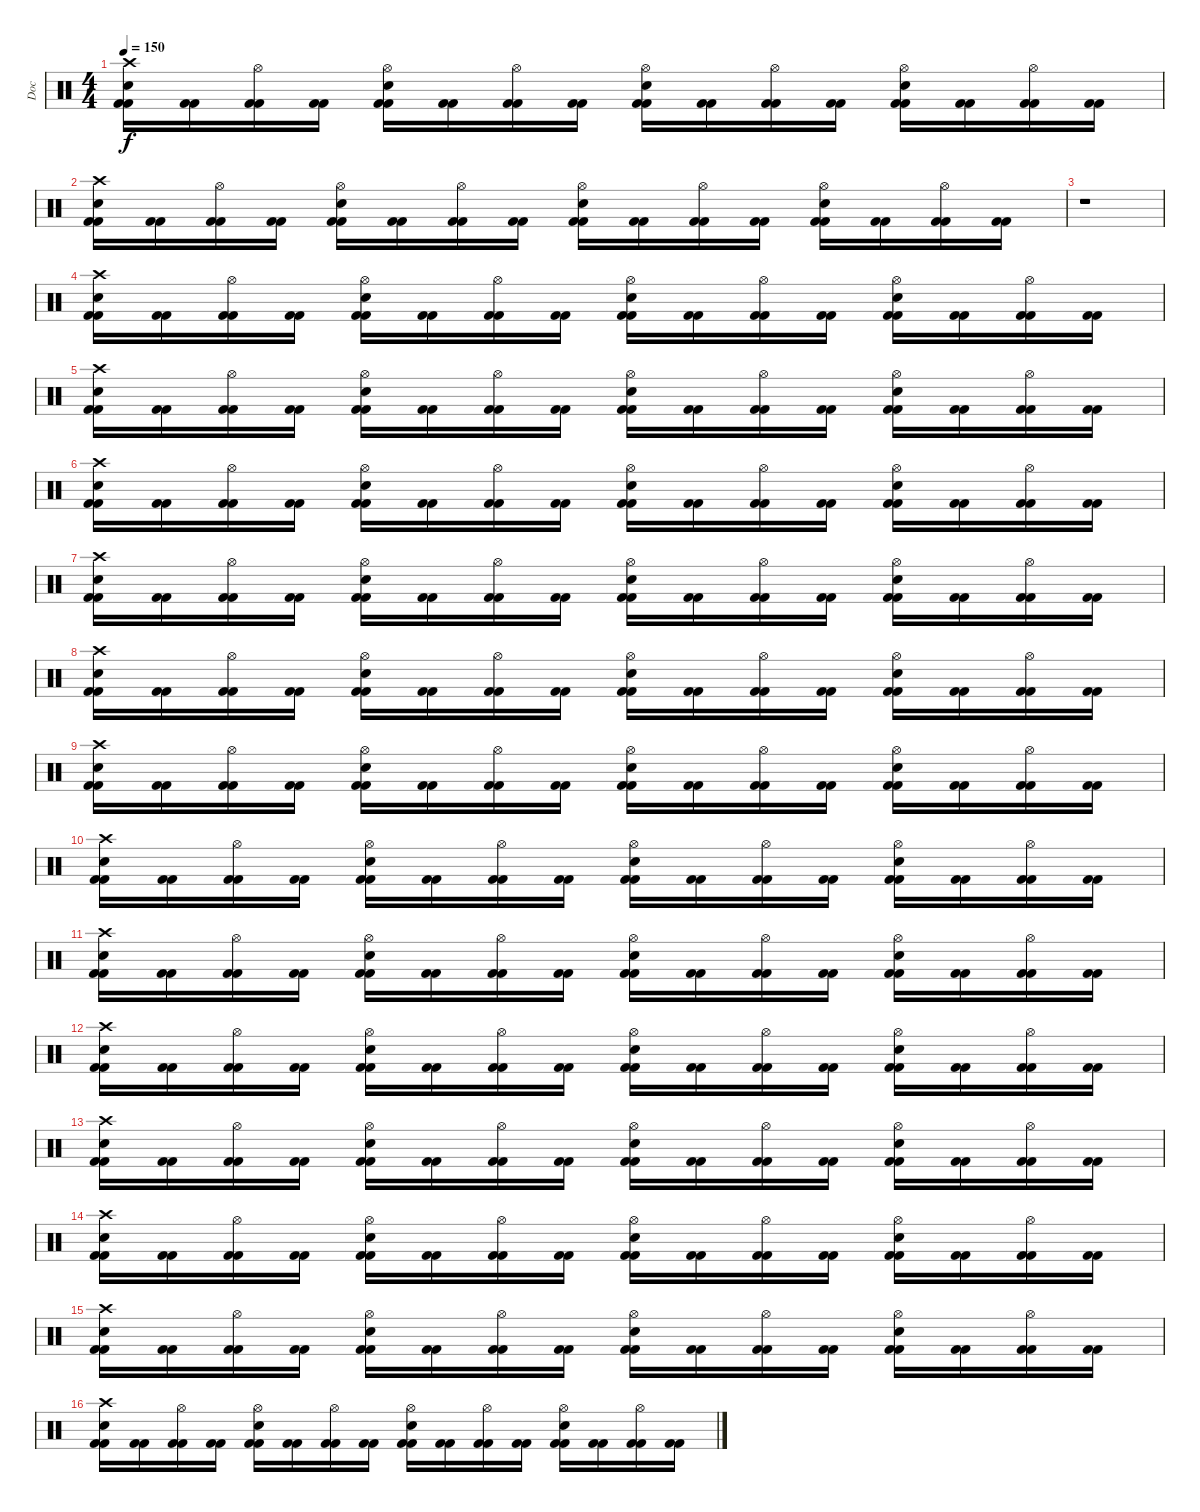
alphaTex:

\track ("Doc" "Doc") {instrument percussion}
\staff {score}
\articulation defaults
\ts (4 4)
\tempo 150
\clef neutral
\ks c
("Kick (hit) 2" "Crash high (hit)" "Electric Snare (hit)" "Kick (hit) 2").16{dy f} ("Kick (hit) 2" "Kick (hit) 2").16 ("Kick (hit) 2" "Hi-Hat (open)" "Kick (hit) 2").16 ("Kick (hit) 2" "Kick (hit) 2").16 ("Kick (hit) 2" "Hi-Hat (open)" "Electric Snare (hit)" "Kick (hit) 2").16 ("Kick (hit) 2" "Kick (hit) 2").16 ("Kick (hit) 2" "Hi-Hat (open)" "Kick (hit) 2").16 ("Kick (hit) 2" "Kick (hit) 2").16 ("Kick (hit) 2" "Hi-Hat (open)" "Electric Snare (hit)" "Kick (hit) 2").16 ("Kick (hit) 2" "Kick (hit) 2").16 ("Kick (hit) 2" "Hi-Hat (open)" "Kick (hit) 2").16 ("Kick (hit) 2" "Kick (hit) 2").16 ("Kick (hit) 2" "Hi-Hat (open)" "Electric Snare (hit)" "Kick (hit) 2").16 ("Kick (hit) 2" "Kick (hit) 2").16 ("Kick (hit) 2" "Hi-Hat (open)" "Kick (hit) 2").16 ("Kick (hit) 2" "Kick (hit) 2").16 |
("Kick (hit) 2" "Crash high (hit)" "Electric Snare (hit)" "Kick (hit) 2").16 ("Kick (hit) 2" "Kick (hit) 2").16 ("Kick (hit) 2" "Hi-Hat (open)" "Kick (hit) 2").16 ("Kick (hit) 2" "Kick (hit) 2").16 ("Kick (hit) 2" "Hi-Hat (open)" "Electric Snare (hit)" "Kick (hit) 2").16 ("Kick (hit) 2" "Kick (hit) 2").16 ("Kick (hit) 2" "Hi-Hat (open)" "Kick (hit) 2").16 ("Kick (hit) 2" "Kick (hit) 2").16 ("Kick (hit) 2" "Hi-Hat (open)" "Electric Snare (hit)" "Kick (hit) 2").16 ("Kick (hit) 2" "Kick (hit) 2").16 ("Kick (hit) 2" "Hi-Hat (open)" "Kick (hit) 2").16 ("Kick (hit) 2" "Kick (hit) 2").16 ("Kick (hit) 2" "Hi-Hat (open)" "Electric Snare (hit)" "Kick (hit) 2").16 ("Kick (hit) 2" "Kick (hit) 2").16 ("Kick (hit) 2" "Hi-Hat (open)" "Kick (hit) 2").16 ("Kick (hit) 2" "Kick (hit) 2").16 |
r.1 |
("Kick (hit) 2" "Crash high (hit)" "Electric Snare (hit)" "Kick (hit) 2").16 ("Kick (hit) 2" "Kick (hit) 2").16 ("Kick (hit) 2" "Hi-Hat (open)" "Kick (hit) 2").16 ("Kick (hit) 2" "Kick (hit) 2").16 ("Kick (hit) 2" "Hi-Hat (open)" "Electric Snare (hit)" "Kick (hit) 2").16 ("Kick (hit) 2" "Kick (hit) 2").16 ("Kick (hit) 2" "Hi-Hat (open)" "Kick (hit) 2").16 ("Kick (hit) 2" "Kick (hit) 2").16 ("Kick (hit) 2" "Hi-Hat (open)" "Electric Snare (hit)" "Kick (hit) 2").16 ("Kick (hit) 2" "Kick (hit) 2").16 ("Kick (hit) 2" "Hi-Hat (open)" "Kick (hit) 2").16 ("Kick (hit) 2" "Kick (hit) 2").16 ("Kick (hit) 2" "Hi-Hat (open)" "Electric Snare (hit)" "Kick (hit) 2").16 ("Kick (hit) 2" "Kick (hit) 2").16 ("Kick (hit) 2" "Hi-Hat (open)" "Kick (hit) 2").16 ("Kick (hit) 2" "Kick (hit) 2").16 |
("Kick (hit) 2" "Crash high (hit)" "Electric Snare (hit)" "Kick (hit) 2").16 ("Kick (hit) 2" "Kick (hit) 2").16 ("Kick (hit) 2" "Hi-Hat (open)" "Kick (hit) 2").16 ("Kick (hit) 2" "Kick (hit) 2").16 ("Kick (hit) 2" "Hi-Hat (open)" "Electric Snare (hit)" "Kick (hit) 2").16 ("Kick (hit) 2" "Kick (hit) 2").16 ("Kick (hit) 2" "Hi-Hat (open)" "Kick (hit) 2").16 ("Kick (hit) 2" "Kick (hit) 2").16 ("Kick (hit) 2" "Hi-Hat (open)" "Electric Snare (hit)" "Kick (hit) 2").16 ("Kick (hit) 2" "Kick (hit) 2").16 ("Kick (hit) 2" "Hi-Hat (open)" "Kick (hit) 2").16 ("Kick (hit) 2" "Kick (hit) 2").16 ("Kick (hit) 2" "Hi-Hat (open)" "Electric Snare (hit)" "Kick (hit) 2").16 ("Kick (hit) 2" "Kick (hit) 2").16 ("Kick (hit) 2" "Hi-Hat (open)" "Kick (hit) 2").16 ("Kick (hit) 2" "Kick (hit) 2").16 |
("Kick (hit) 2" "Crash high (hit)" "Electric Snare (hit)" "Kick (hit) 2").16 ("Kick (hit) 2" "Kick (hit) 2").16 ("Kick (hit) 2" "Hi-Hat (open)" "Kick (hit) 2").16 ("Kick (hit) 2" "Kick (hit) 2").16 ("Kick (hit) 2" "Hi-Hat (open)" "Electric Snare (hit)" "Kick (hit) 2").16 ("Kick (hit) 2" "Kick (hit) 2").16 ("Kick (hit) 2" "Hi-Hat (open)" "Kick (hit) 2").16 ("Kick (hit) 2" "Kick (hit) 2").16 ("Kick (hit) 2" "Hi-Hat (open)" "Electric Snare (hit)" "Kick (hit) 2").16 ("Kick (hit) 2" "Kick (hit) 2").16 ("Kick (hit) 2" "Hi-Hat (open)" "Kick (hit) 2").16 ("Kick (hit) 2" "Kick (hit) 2").16 ("Kick (hit) 2" "Hi-Hat (open)" "Electric Snare (hit)" "Kick (hit) 2").16 ("Kick (hit) 2" "Kick (hit) 2").16 ("Kick (hit) 2" "Hi-Hat (open)" "Kick (hit) 2").16 ("Kick (hit) 2" "Kick (hit) 2").16 |
("Kick (hit) 2" "Crash high (hit)" "Electric Snare (hit)" "Kick (hit) 2").16 ("Kick (hit) 2" "Kick (hit) 2").16 ("Kick (hit) 2" "Hi-Hat (open)" "Kick (hit) 2").16 ("Kick (hit) 2" "Kick (hit) 2").16 ("Kick (hit) 2" "Hi-Hat (open)" "Electric Snare (hit)" "Kick (hit) 2").16 ("Kick (hit) 2" "Kick (hit) 2").16 ("Kick (hit) 2" "Hi-Hat (open)" "Kick (hit) 2").16 ("Kick (hit) 2" "Kick (hit) 2").16 ("Kick (hit) 2" "Hi-Hat (open)" "Electric Snare (hit)" "Kick (hit) 2").16 ("Kick (hit) 2" "Kick (hit) 2").16 ("Kick (hit) 2" "Hi-Hat (open)" "Kick (hit) 2").16 ("Kick (hit) 2" "Kick (hit) 2").16 ("Kick (hit) 2" "Hi-Hat (open)" "Electric Snare (hit)" "Kick (hit) 2").16 ("Kick (hit) 2" "Kick (hit) 2").16 ("Kick (hit) 2" "Hi-Hat (open)" "Kick (hit) 2").16 ("Kick (hit) 2" "Kick (hit) 2").16 |
("Kick (hit) 2" "Crash high (hit)" "Electric Snare (hit)" "Kick (hit) 2").16 ("Kick (hit) 2" "Kick (hit) 2").16 ("Kick (hit) 2" "Hi-Hat (open)" "Kick (hit) 2").16 ("Kick (hit) 2" "Kick (hit) 2").16 ("Kick (hit) 2" "Hi-Hat (open)" "Electric Snare (hit)" "Kick (hit) 2").16 ("Kick (hit) 2" "Kick (hit) 2").16 ("Kick (hit) 2" "Hi-Hat (open)" "Kick (hit) 2").16 ("Kick (hit) 2" "Kick (hit) 2").16 ("Kick (hit) 2" "Hi-Hat (open)" "Electric Snare (hit)" "Kick (hit) 2").16 ("Kick (hit) 2" "Kick (hit) 2").16 ("Kick (hit) 2" "Hi-Hat (open)" "Kick (hit) 2").16 ("Kick (hit) 2" "Kick (hit) 2").16 ("Kick (hit) 2" "Hi-Hat (open)" "Electric Snare (hit)" "Kick (hit) 2").16 ("Kick (hit) 2" "Kick (hit) 2").16 ("Kick (hit) 2" "Hi-Hat (open)" "Kick (hit) 2").16 ("Kick (hit) 2" "Kick (hit) 2").16 |
("Kick (hit) 2" "Crash high (hit)" "Electric Snare (hit)" "Kick (hit) 2").16 ("Kick (hit) 2" "Kick (hit) 2").16 ("Kick (hit) 2" "Hi-Hat (open)" "Kick (hit) 2").16 ("Kick (hit) 2" "Kick (hit) 2").16 ("Kick (hit) 2" "Hi-Hat (open)" "Electric Snare (hit)" "Kick (hit) 2").16 ("Kick (hit) 2" "Kick (hit) 2").16 ("Kick (hit) 2" "Hi-Hat (open)" "Kick (hit) 2").16 ("Kick (hit) 2" "Kick (hit) 2").16 ("Kick (hit) 2" "Hi-Hat (open)" "Electric Snare (hit)" "Kick (hit) 2").16 ("Kick (hit) 2" "Kick (hit) 2").16 ("Kick (hit) 2" "Hi-Hat (open)" "Kick (hit) 2").16 ("Kick (hit) 2" "Kick (hit) 2").16 ("Kick (hit) 2" "Hi-Hat (open)" "Electric Snare (hit)" "Kick (hit) 2").16 ("Kick (hit) 2" "Kick (hit) 2").16 ("Kick (hit) 2" "Hi-Hat (open)" "Kick (hit) 2").16 ("Kick (hit) 2" "Kick (hit) 2").16 |
("Kick (hit) 2" "Crash high (hit)" "Electric Snare (hit)" "Kick (hit) 2").16 ("Kick (hit) 2" "Kick (hit) 2").16 ("Kick (hit) 2" "Hi-Hat (open)" "Kick (hit) 2").16 ("Kick (hit) 2" "Kick (hit) 2").16 ("Kick (hit) 2" "Hi-Hat (open)" "Electric Snare (hit)" "Kick (hit) 2").16 ("Kick (hit) 2" "Kick (hit) 2").16 ("Kick (hit) 2" "Hi-Hat (open)" "Kick (hit) 2").16 ("Kick (hit) 2" "Kick (hit) 2").16 ("Kick (hit) 2" "Hi-Hat (open)" "Electric Snare (hit)" "Kick (hit) 2").16 ("Kick (hit) 2" "Kick (hit) 2").16 ("Kick (hit) 2" "Hi-Hat (open)" "Kick (hit) 2").16 ("Kick (hit) 2" "Kick (hit) 2").16 ("Kick (hit) 2" "Hi-Hat (open)" "Electric Snare (hit)" "Kick (hit) 2").16 ("Kick (hit) 2" "Kick (hit) 2").16 ("Kick (hit) 2" "Hi-Hat (open)" "Kick (hit) 2").16 ("Kick (hit) 2" "Kick (hit) 2").16 |
("Kick (hit) 2" "Crash high (hit)" "Electric Snare (hit)" "Kick (hit) 2").16 ("Kick (hit) 2" "Kick (hit) 2").16 ("Kick (hit) 2" "Hi-Hat (open)" "Kick (hit) 2").16 ("Kick (hit) 2" "Kick (hit) 2").16 ("Kick (hit) 2" "Hi-Hat (open)" "Electric Snare (hit)" "Kick (hit) 2").16 ("Kick (hit) 2" "Kick (hit) 2").16 ("Kick (hit) 2" "Hi-Hat (open)" "Kick (hit) 2").16 ("Kick (hit) 2" "Kick (hit) 2").16 ("Kick (hit) 2" "Hi-Hat (open)" "Electric Snare (hit)" "Kick (hit) 2").16 ("Kick (hit) 2" "Kick (hit) 2").16 ("Kick (hit) 2" "Hi-Hat (open)" "Kick (hit) 2").16 ("Kick (hit) 2" "Kick (hit) 2").16 ("Kick (hit) 2" "Hi-Hat (open)" "Electric Snare (hit)" "Kick (hit) 2").16 ("Kick (hit) 2" "Kick (hit) 2").16 ("Kick (hit) 2" "Hi-Hat (open)" "Kick (hit) 2").16 ("Kick (hit) 2" "Kick (hit) 2").16 |
("Kick (hit) 2" "Crash high (hit)" "Electric Snare (hit)" "Kick (hit) 2").16 ("Kick (hit) 2" "Kick (hit) 2").16 ("Kick (hit) 2" "Hi-Hat (open)" "Kick (hit) 2").16 ("Kick (hit) 2" "Kick (hit) 2").16 ("Kick (hit) 2" "Hi-Hat (open)" "Electric Snare (hit)" "Kick (hit) 2").16 ("Kick (hit) 2" "Kick (hit) 2").16 ("Kick (hit) 2" "Hi-Hat (open)" "Kick (hit) 2").16 ("Kick (hit) 2" "Kick (hit) 2").16 ("Kick (hit) 2" "Hi-Hat (open)" "Electric Snare (hit)" "Kick (hit) 2").16 ("Kick (hit) 2" "Kick (hit) 2").16 ("Kick (hit) 2" "Hi-Hat (open)" "Kick (hit) 2").16 ("Kick (hit) 2" "Kick (hit) 2").16 ("Kick (hit) 2" "Hi-Hat (open)" "Electric Snare (hit)" "Kick (hit) 2").16 ("Kick (hit) 2" "Kick (hit) 2").16 ("Kick (hit) 2" "Hi-Hat (open)" "Kick (hit) 2").16 ("Kick (hit) 2" "Kick (hit) 2").16 |
("Kick (hit) 2" "Crash high (hit)" "Electric Snare (hit)" "Kick (hit) 2").16 ("Kick (hit) 2" "Kick (hit) 2").16 ("Kick (hit) 2" "Hi-Hat (open)" "Kick (hit) 2").16 ("Kick (hit) 2" "Kick (hit) 2").16 ("Kick (hit) 2" "Hi-Hat (open)" "Electric Snare (hit)" "Kick (hit) 2").16 ("Kick (hit) 2" "Kick (hit) 2").16 ("Kick (hit) 2" "Hi-Hat (open)" "Kick (hit) 2").16 ("Kick (hit) 2" "Kick (hit) 2").16 ("Kick (hit) 2" "Hi-Hat (open)" "Electric Snare (hit)" "Kick (hit) 2").16 ("Kick (hit) 2" "Kick (hit) 2").16 ("Kick (hit) 2" "Hi-Hat (open)" "Kick (hit) 2").16 ("Kick (hit) 2" "Kick (hit) 2").16 ("Kick (hit) 2" "Hi-Hat (open)" "Electric Snare (hit)" "Kick (hit) 2").16 ("Kick (hit) 2" "Kick (hit) 2").16 ("Kick (hit) 2" "Hi-Hat (open)" "Kick (hit) 2").16 ("Kick (hit) 2" "Kick (hit) 2").16 |
("Kick (hit) 2" "Crash high (hit)" "Electric Snare (hit)" "Kick (hit) 2").16 ("Kick (hit) 2" "Kick (hit) 2").16 ("Kick (hit) 2" "Hi-Hat (open)" "Kick (hit) 2").16 ("Kick (hit) 2" "Kick (hit) 2").16 ("Kick (hit) 2" "Hi-Hat (open)" "Electric Snare (hit)" "Kick (hit) 2").16 ("Kick (hit) 2" "Kick (hit) 2").16 ("Kick (hit) 2" "Hi-Hat (open)" "Kick (hit) 2").16 ("Kick (hit) 2" "Kick (hit) 2").16 ("Kick (hit) 2" "Hi-Hat (open)" "Electric Snare (hit)" "Kick (hit) 2").16 ("Kick (hit) 2" "Kick (hit) 2").16 ("Kick (hit) 2" "Hi-Hat (open)" "Kick (hit) 2").16 ("Kick (hit) 2" "Kick (hit) 2").16 ("Kick (hit) 2" "Hi-Hat (open)" "Electric Snare (hit)" "Kick (hit) 2").16 ("Kick (hit) 2" "Kick (hit) 2").16 ("Kick (hit) 2" "Hi-Hat (open)" "Kick (hit) 2").16 ("Kick (hit) 2" "Kick (hit) 2").16 |
("Kick (hit) 2" "Crash high (hit)" "Electric Snare (hit)" "Kick (hit) 2").16 ("Kick (hit) 2" "Kick (hit) 2").16 ("Kick (hit) 2" "Hi-Hat (open)" "Kick (hit) 2").16 ("Kick (hit) 2" "Kick (hit) 2").16 ("Kick (hit) 2" "Hi-Hat (open)" "Electric Snare (hit)" "Kick (hit) 2").16 ("Kick (hit) 2" "Kick (hit) 2").16 ("Kick (hit) 2" "Hi-Hat (open)" "Kick (hit) 2").16 ("Kick (hit) 2" "Kick (hit) 2").16 ("Kick (hit) 2" "Hi-Hat (open)" "Electric Snare (hit)" "Kick (hit) 2").16 ("Kick (hit) 2" "Kick (hit) 2").16 ("Kick (hit) 2" "Hi-Hat (open)" "Kick (hit) 2").16 ("Kick (hit) 2" "Kick (hit) 2").16 ("Kick (hit) 2" "Hi-Hat (open)" "Electric Snare (hit)" "Kick (hit) 2").16 ("Kick (hit) 2" "Kick (hit) 2").16 ("Kick (hit) 2" "Hi-Hat (open)" "Kick (hit) 2").16 ("Kick (hit) 2" "Kick (hit) 2").16 |
("Kick (hit) 2" "Crash high (hit)" "Electric Snare (hit)" "Kick (hit) 2").16 ("Kick (hit) 2" "Kick (hit) 2").16 ("Kick (hit) 2" "Hi-Hat (open)" "Kick (hit) 2").16 ("Kick (hit) 2" "Kick (hit) 2").16 ("Kick (hit) 2" "Hi-Hat (open)" "Electric Snare (hit)" "Kick (hit) 2").16 ("Kick (hit) 2" "Kick (hit) 2").16 ("Kick (hit) 2" "Hi-Hat (open)" "Kick (hit) 2").16 ("Kick (hit) 2" "Kick (hit) 2").16 ("Kick (hit) 2" "Hi-Hat (open)" "Electric Snare (hit)" "Kick (hit) 2").16 ("Kick (hit) 2" "Kick (hit) 2").16 ("Kick (hit) 2" "Hi-Hat (open)" "Kick (hit) 2").16 ("Kick (hit) 2" "Kick (hit) 2").16 ("Kick (hit) 2" "Hi-Hat (open)" "Electric Snare (hit)" "Kick (hit) 2").16 ("Kick (hit) 2" "Kick (hit) 2").16 ("Kick (hit) 2" "Hi-Hat (open)" "Kick (hit) 2").16 ("Kick (hit) 2" "Kick (hit) 2").16
